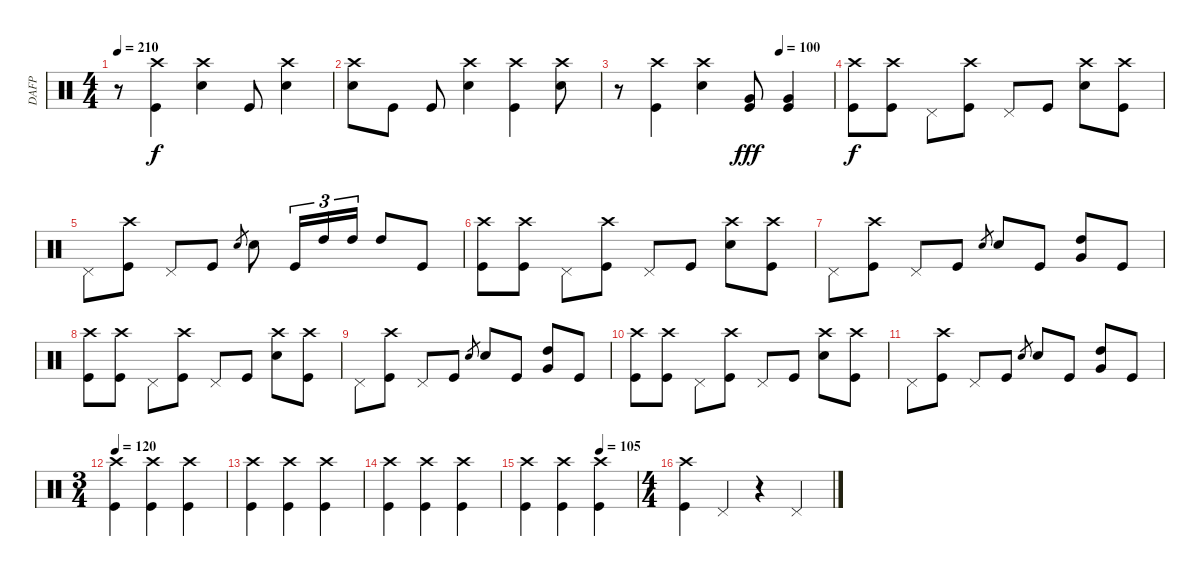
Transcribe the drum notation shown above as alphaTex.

\track ("DAFP" "DAFP") {instrument percussion}
\staff {score}
\articulation defaults
\ts (4 4)
\tempo 210
\clef neutral
\ks c
r.8{dy f} ("Kick (hit)" "Crash high (hit)").4 ("Crash high (hit)" "Snare (hit) 2").4 "Kick (hit)".8 ("Snare (hit) 2" "Crash high (hit)").4 |
("Crash high (hit)" "Snare (hit) 2").8 "Kick (hit)".8 "Kick (hit)".8 ("Crash high (hit)" "Snare (hit) 2").4 ("Kick (hit)" "Crash high (hit)").4 ("Snare (hit) 2" "Crash high (hit)").8 |
\tempo (100 0.75)
r.8 ("Kick (hit)" "Crash high (hit)").4 ("Crash high (hit)" "Snare (hit) 2").4 ("Kick (hit)" "Very Low Tom (hit)").8{dy fff} ("Very Low Tom (hit)" "Kick (hit)").4 |
("Crash high (hit)" "Kick (hit)").8{dy f} ("Kick (hit)" "Crash high (hit)").8 "Pedal Hi-Hat (hit)".8 ("Kick (hit)" "Crash high (hit)").8 "Pedal Hi-Hat (hit)".8 "Kick (hit)".8 ("Snare (hit) 2" "Crash high (hit)").8 ("Kick (hit)" "Crash high (hit)").8 |
"Pedal Hi-Hat (hit)".8 ("Crash high (hit)" "Kick (hit)").8 "Pedal Hi-Hat (hit)".8 "Kick (hit)".8 "Snare (hit) 2".8{gr} "Snare (hit) 2".8 "Kick (hit)".16{tu (3 2)} "High Tom (hit)".16{tu (3 2)} "High Tom (hit)".16{tu (3 2)} "High Tom (hit)".8 "Kick (hit)".8 |
("Crash high (hit)" "Kick (hit)").8 ("Kick (hit)" "Crash high (hit)").8 "Pedal Hi-Hat (hit)".8 ("Kick (hit)" "Crash high (hit)").8 "Pedal Hi-Hat (hit)".8 "Kick (hit)".8 ("Snare (hit) 2" "Crash high (hit)").8 ("Kick (hit)" "Crash high (hit)").8 |
"Pedal Hi-Hat (hit)".8 ("Crash high (hit)" "Kick (hit)").8 "Pedal Hi-Hat (hit)".8 "Kick (hit)".8 "Snare (hit) 2".8{gr} "Snare (hit) 2".8 "Kick (hit)".8 ("High Tom (hit)" "Very Low Tom (hit)").8 "Kick (hit)".8 |
("Crash high (hit)" "Kick (hit)").8 ("Kick (hit)" "Crash high (hit)").8 "Pedal Hi-Hat (hit)".8 ("Kick (hit)" "Crash high (hit)").8 "Pedal Hi-Hat (hit)".8 "Kick (hit)".8 ("Snare (hit) 2" "Crash high (hit)").8 ("Kick (hit)" "Crash high (hit)").8 |
"Pedal Hi-Hat (hit)".8 ("Crash high (hit)" "Kick (hit)").8 "Pedal Hi-Hat (hit)".8 "Kick (hit)".8 "Snare (hit) 2".8{gr} "Snare (hit) 2".8 "Kick (hit)".8 ("High Tom (hit)" "Very Low Tom (hit)").8 "Kick (hit)".8 |
("Crash high (hit)" "Kick (hit)").8 ("Kick (hit)" "Crash high (hit)").8 "Pedal Hi-Hat (hit)".8 ("Kick (hit)" "Crash high (hit)").8 "Pedal Hi-Hat (hit)".8 "Kick (hit)".8 ("Snare (hit) 2" "Crash high (hit)").8 ("Kick (hit)" "Crash high (hit)").8 |
"Pedal Hi-Hat (hit)".8 ("Crash high (hit)" "Kick (hit)").8 "Pedal Hi-Hat (hit)".8 "Kick (hit)".8 "Snare (hit) 2".8{gr} "Snare (hit) 2".8 "Kick (hit)".8 ("High Tom (hit)" "Very Low Tom (hit)").8 "Kick (hit)".8 |
\ts (3 4)
\tempo 120
("Crash high (hit)" "Kick (hit)").4 ("Kick (hit)" "Crash high (hit)").4 ("Kick (hit)" "Crash high (hit)").4 |
("Crash high (hit)" "Kick (hit)").4 ("Kick (hit)" "Crash high (hit)").4 ("Kick (hit)" "Crash high (hit)").4 |
("Crash high (hit)" "Kick (hit)").4 ("Kick (hit)" "Crash high (hit)").4 ("Kick (hit)" "Crash high (hit)").4 |
\tempo (105 0.6666666666666666)
("Crash high (hit)" "Kick (hit)").4 ("Kick (hit)" "Crash high (hit)").4 ("Kick (hit)" "Crash high (hit)").4 |
\ts (4 4)
("Crash high (hit)" "Kick (hit)").4 "Pedal Hi-Hat (hit)".4 r.4 "Pedal Hi-Hat (hit)".4
